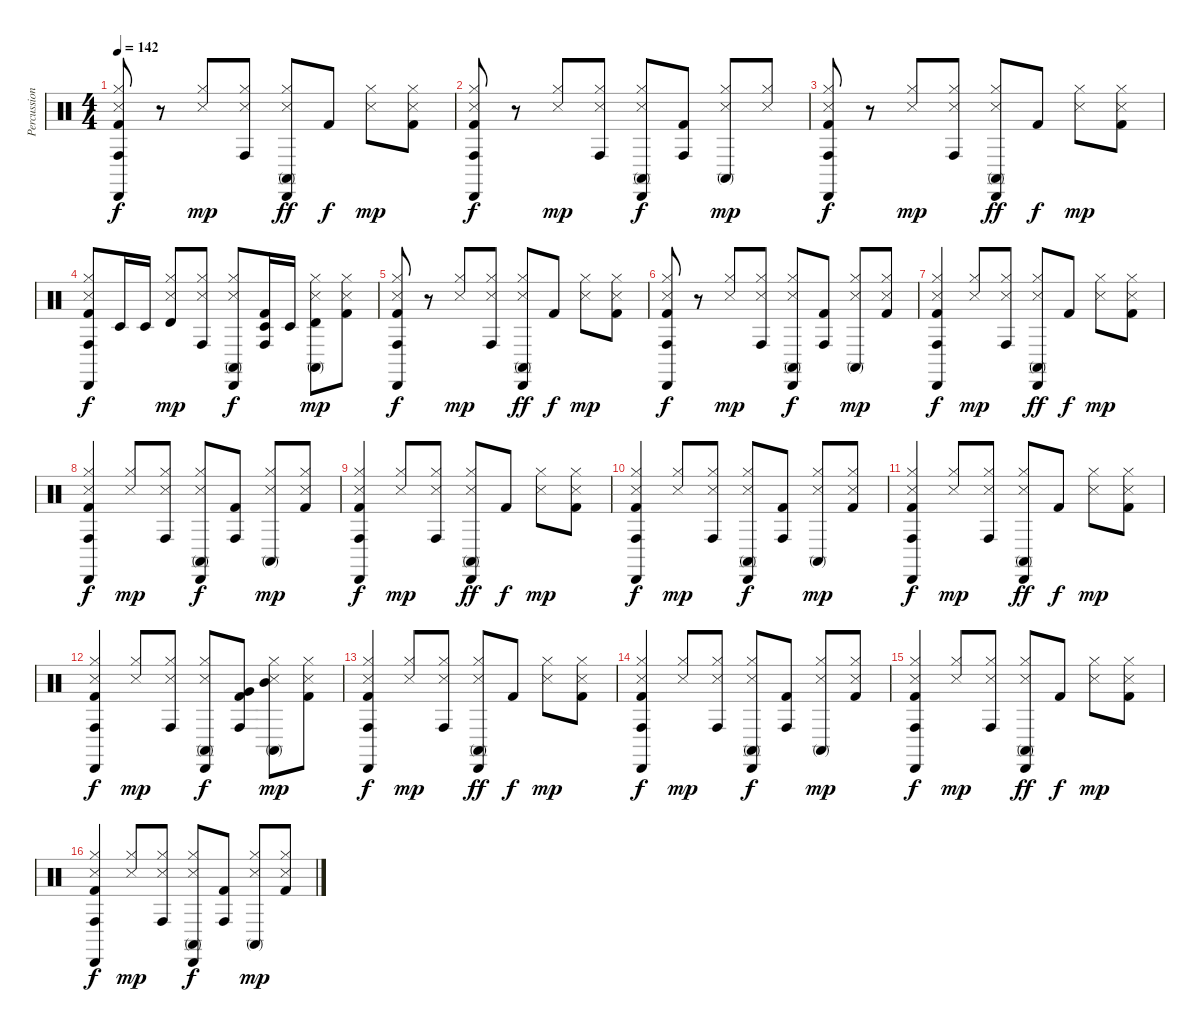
\track ("Percussion Booster" "Percussion") {instrument percussion}
\staff {score}
\articulation defaults
\ts (4 4)
\tempo 142
\clef neutral
\ks c
("Conga high (hit)" "Cabasa (hit)" "Hi-Hat (closed)" "Snare (side stick) 3" "Kick (hit) 2").8{dy f} r.8 ("Hi-Hat (closed)" "Snare (side stick) 3").8{dy mp} ("Conga high (hit)" "Hi-Hat (closed)" "Snare (side stick) 3").8 ("Conga high (mute)" "Cabasa (hit)" "Hi-Hat (closed)" "Snare (side stick) 3").8{dy ff} "Kick (hit) 2".8{dy f} ("Hi-Hat (closed)" "Snare (side stick) 3").8{dy mp} ("Hi-Hat (closed)" "Snare (side stick) 3" "Kick (hit) 2").8 |
("Conga high (hit)" "Cabasa (hit)" "Hi-Hat (closed)" "Snare (side stick) 3" "Kick (hit) 2").8{dy f} r.8 ("Hi-Hat (closed)" "Snare (side stick) 3").8{dy mp} ("Conga high (hit)" "Hi-Hat (closed)" "Snare (side stick) 3").8 ("Conga high (mute)" "Cabasa (hit)" "Hi-Hat (closed)" "Snare (side stick) 3").8{dy f} ("Conga high (hit)" "Kick (hit) 2").8 ("Conga high (mute)" "Hi-Hat (closed)" "Snare (side stick) 3").8{dy mp} ("Hi-Hat (closed)" "Snare (side stick) 3").8 |
("Conga high (hit)" "Cabasa (hit)" "Hi-Hat (closed)" "Snare (side stick) 3" "Kick (hit) 2").8{dy f} r.8 ("Hi-Hat (closed)" "Snare (side stick) 3").8{dy mp} ("Conga high (hit)" "Hi-Hat (closed)" "Snare (side stick) 3").8 ("Conga high (mute)" "Cabasa (hit)" "Hi-Hat (closed)" "Snare (side stick) 3").8{dy ff} "Kick (hit) 2".8{dy f} ("Hi-Hat (closed)" "Snare (side stick) 3").8{dy mp} ("Hi-Hat (closed)" "Snare (side stick) 3" "Kick (hit) 2").8 |
("Conga high (hit)" "Cabasa (hit)" "Hi-Hat (closed)" "Snare (side stick) 3" "Kick (hit) 2").8{dy f} "Timbale low (hit)".16 "Timbale low (hit)".16 ("Timbale high (hit)" "Hi-Hat (closed)" "Snare (side stick) 3").8{dy mp} ("Conga high (hit)" "Hi-Hat (closed)" "Snare (side stick) 3").8 ("Conga high (mute)" "Cabasa (hit)" "Hi-Hat (closed)" "Snare (side stick) 3").8{dy f} ("Timbale low (hit)" "Conga high (hit)" "Kick (hit) 2").16 "Timbale low (hit)".16 ("Timbale high (hit)" "Conga high (mute)" "Hi-Hat (closed)" "Snare (side stick) 3").8{dy mp} ("Hi-Hat (closed)" "Snare (side stick) 3" "Kick (hit) 2").8 |
("Conga high (hit)" "Cabasa (hit)" "Hi-Hat (closed)" "Snare (side stick) 3" "Kick (hit) 2").8{dy f} r.8 ("Hi-Hat (closed)" "Snare (side stick) 3").8{dy mp} ("Conga high (hit)" "Hi-Hat (closed)" "Snare (side stick) 3").8 ("Conga high (mute)" "Cabasa (hit)" "Hi-Hat (closed)" "Snare (side stick) 3").8{dy ff} "Kick (hit) 2".8{dy f} ("Hi-Hat (closed)" "Snare (side stick) 3").8{dy mp} ("Hi-Hat (closed)" "Snare (side stick) 3" "Kick (hit) 2").8 |
("Conga high (hit)" "Cabasa (hit)" "Hi-Hat (closed)" "Snare (side stick) 3" "Kick (hit) 2").8{dy f} r.8 ("Hi-Hat (closed)" "Snare (side stick) 3").8{dy mp} ("Conga high (hit)" "Hi-Hat (closed)" "Snare (side stick) 3").8 ("Conga high (mute)" "Cabasa (hit)" "Hi-Hat (closed)" "Snare (side stick) 3").8{dy f} ("Conga high (hit)" "Kick (hit) 2").8 ("Conga high (mute)" "Hi-Hat (closed)" "Snare (side stick) 3").8{dy mp} ("Hi-Hat (closed)" "Snare (side stick) 3" "Kick (hit) 2").8 |
("Conga high (hit)" "Cabasa (hit)" "Hi-Hat (closed)" "Snare (side stick) 3" "Kick (hit) 2").4{dy f} ("Hi-Hat (closed)" "Snare (side stick) 3").8{dy mp} ("Conga high (hit)" "Hi-Hat (closed)" "Snare (side stick) 3").8 ("Conga high (mute)" "Cabasa (hit)" "Hi-Hat (closed)" "Snare (side stick) 3").8{dy ff} "Kick (hit) 2".8{dy f} ("Hi-Hat (closed)" "Snare (side stick) 3").8{dy mp} ("Hi-Hat (closed)" "Snare (side stick) 3" "Kick (hit) 2").8 |
("Conga high (hit)" "Cabasa (hit)" "Hi-Hat (closed)" "Snare (side stick) 3" "Kick (hit) 2").4{dy f} ("Hi-Hat (closed)" "Snare (side stick) 3").8{dy mp} ("Conga high (hit)" "Hi-Hat (closed)" "Snare (side stick) 3").8 ("Conga high (mute)" "Cabasa (hit)" "Hi-Hat (closed)" "Snare (side stick) 3").8{dy f} ("Conga high (hit)" "Kick (hit) 2").8 ("Conga high (mute)" "Hi-Hat (closed)" "Snare (side stick) 3").8{dy mp} ("Hi-Hat (closed)" "Snare (side stick) 3" "Kick (hit) 2").8 |
("Conga high (hit)" "Cabasa (hit)" "Hi-Hat (closed)" "Snare (side stick) 3" "Kick (hit) 2").4{dy f} ("Hi-Hat (closed)" "Snare (side stick) 3").8{dy mp} ("Conga high (hit)" "Hi-Hat (closed)" "Snare (side stick) 3").8 ("Conga high (mute)" "Cabasa (hit)" "Hi-Hat (closed)" "Snare (side stick) 3").8{dy ff} "Kick (hit) 2".8{dy f} ("Hi-Hat (closed)" "Snare (side stick) 3").8{dy mp} ("Hi-Hat (closed)" "Snare (side stick) 3" "Kick (hit) 2").8 |
("Conga high (hit)" "Cabasa (hit)" "Hi-Hat (closed)" "Snare (side stick) 3" "Kick (hit) 2").4{dy f} ("Hi-Hat (closed)" "Snare (side stick) 3").8{dy mp} ("Conga high (hit)" "Hi-Hat (closed)" "Snare (side stick) 3").8 ("Conga high (mute)" "Cabasa (hit)" "Hi-Hat (closed)" "Snare (side stick) 3").8{dy f} ("Conga high (hit)" "Kick (hit) 2").8 ("Conga high (mute)" "Hi-Hat (closed)" "Snare (side stick) 3").8{dy mp} ("Hi-Hat (closed)" "Snare (side stick) 3" "Kick (hit) 2").8 |
("Conga high (hit)" "Cabasa (hit)" "Hi-Hat (closed)" "Snare (side stick) 3" "Kick (hit) 2").4{dy f} ("Hi-Hat (closed)" "Snare (side stick) 3").8{dy mp} ("Conga high (hit)" "Hi-Hat (closed)" "Snare (side stick) 3").8 ("Conga high (mute)" "Cabasa (hit)" "Hi-Hat (closed)" "Snare (side stick) 3").8{dy ff} "Kick (hit) 2".8{dy f} ("Hi-Hat (closed)" "Snare (side stick) 3").8{dy mp} ("Hi-Hat (closed)" "Snare (side stick) 3" "Kick (hit) 2").8 |
("Conga high (hit)" "Cabasa (hit)" "Hi-Hat (closed)" "Snare (side stick) 3" "Kick (hit) 2").4{dy f} ("Hi-Hat (closed)" "Snare (side stick) 3").8{dy mp} ("Conga high (hit)" "Hi-Hat (closed)" "Snare (side stick) 3").8 ("Conga high (mute)" "Cabasa (hit)" "Hi-Hat (closed)" "Snare (side stick) 3").8{dy f} ("Conga high (hit)" "Very Low Tom (hit)" "Kick (hit) 2").8 ("Conga high (mute)" "Mid Tom (hit)" "Hi-Hat (closed)" "Snare (side stick) 3").8{dy mp} ("Hi-Hat (closed)" "Snare (side stick) 3" "Kick (hit) 2").8 |
("Conga high (hit)" "Cabasa (hit)" "Hi-Hat (closed)" "Snare (side stick) 3" "Kick (hit) 2").4{dy f} ("Hi-Hat (closed)" "Snare (side stick) 3").8{dy mp} ("Conga high (hit)" "Hi-Hat (closed)" "Snare (side stick) 3").8 ("Conga high (mute)" "Cabasa (hit)" "Hi-Hat (closed)" "Snare (side stick) 3").8{dy ff} "Kick (hit) 2".8{dy f} ("Hi-Hat (closed)" "Snare (side stick) 3").8{dy mp} ("Hi-Hat (closed)" "Snare (side stick) 3" "Kick (hit) 2").8 |
("Conga high (hit)" "Cabasa (hit)" "Hi-Hat (closed)" "Snare (side stick) 3" "Kick (hit) 2").4{dy f} ("Hi-Hat (closed)" "Snare (side stick) 3").8{dy mp} ("Conga high (hit)" "Hi-Hat (closed)" "Snare (side stick) 3").8 ("Conga high (mute)" "Cabasa (hit)" "Hi-Hat (closed)" "Snare (side stick) 3").8{dy f} ("Conga high (hit)" "Kick (hit) 2").8 ("Conga high (mute)" "Hi-Hat (closed)" "Snare (side stick) 3").8{dy mp} ("Hi-Hat (closed)" "Snare (side stick) 3" "Kick (hit) 2").8 |
("Conga high (hit)" "Cabasa (hit)" "Hi-Hat (closed)" "Snare (side stick) 3" "Kick (hit) 2").4{dy f} ("Hi-Hat (closed)" "Snare (side stick) 3").8{dy mp} ("Conga high (hit)" "Hi-Hat (closed)" "Snare (side stick) 3").8 ("Conga high (mute)" "Cabasa (hit)" "Hi-Hat (closed)" "Snare (side stick) 3").8{dy ff} "Kick (hit) 2".8{dy f} ("Hi-Hat (closed)" "Snare (side stick) 3").8{dy mp} ("Hi-Hat (closed)" "Snare (side stick) 3" "Kick (hit) 2").8 |
("Conga high (hit)" "Cabasa (hit)" "Hi-Hat (closed)" "Snare (side stick) 3" "Kick (hit) 2").4{dy f} ("Hi-Hat (closed)" "Snare (side stick) 3").8{dy mp} ("Conga high (hit)" "Hi-Hat (closed)" "Snare (side stick) 3").8 ("Conga high (mute)" "Cabasa (hit)" "Hi-Hat (closed)" "Snare (side stick) 3").8{dy f} ("Conga high (hit)" "Kick (hit) 2").8 ("Conga high (mute)" "Hi-Hat (closed)" "Snare (side stick) 3").8{dy mp} ("Hi-Hat (closed)" "Snare (side stick) 3" "Kick (hit) 2").8
